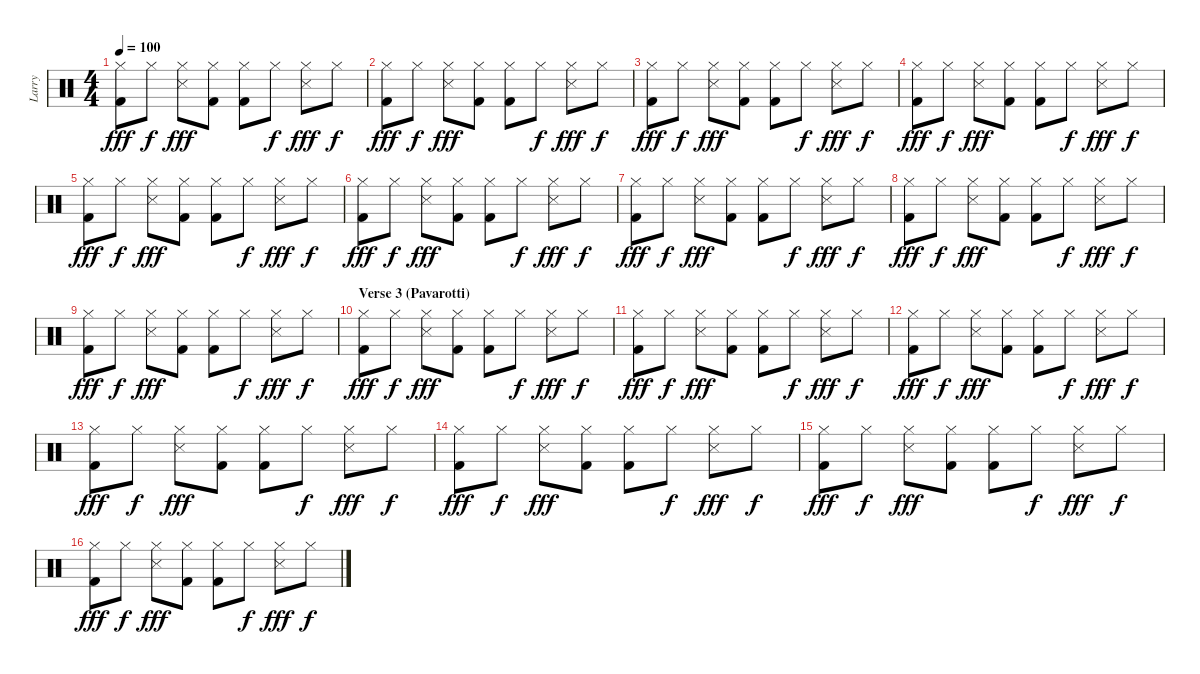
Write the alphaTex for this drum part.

\track ("Larry" "Larry") {instrument percussion}
\staff {score}
\articulation defaults
\ts (4 4)
\tempo 100
\clef neutral
\ks c
("Kick (hit) 2" "Hi-Hat (closed)").8{dy fff} "Hi-Hat (closed)".8{dy f} ("Snare (side stick) 3" "Hi-Hat (closed)").8{dy fff} ("Kick (hit) 2" "Hi-Hat (closed)").8 ("Kick (hit) 2" "Hi-Hat (closed)").8 "Hi-Hat (closed)".8{dy f} ("Snare (side stick) 3" "Hi-Hat (closed)").8{dy fff} "Hi-Hat (closed)".8{dy f} |
("Kick (hit) 2" "Hi-Hat (closed)").8{dy fff} "Hi-Hat (closed)".8{dy f} ("Snare (side stick) 3" "Hi-Hat (closed)").8{dy fff} ("Kick (hit) 2" "Hi-Hat (closed)").8 ("Kick (hit) 2" "Hi-Hat (closed)").8 "Hi-Hat (closed)".8{dy f} ("Snare (side stick) 3" "Hi-Hat (closed)").8{dy fff} "Hi-Hat (closed)".8{dy f} |
("Hi-Hat (closed)" "Kick (hit) 2").8{dy fff} "Hi-Hat (closed)".8{dy f} ("Hi-Hat (closed)" "Snare (side stick) 3").8{dy fff} ("Hi-Hat (closed)" "Kick (hit) 2").8 ("Hi-Hat (closed)" "Kick (hit) 2").8 "Hi-Hat (closed)".8{dy f} ("Hi-Hat (closed)" "Snare (side stick) 3").8{dy fff} "Hi-Hat (closed)".8{dy f} |
("Kick (hit) 2" "Hi-Hat (closed)").8{dy fff} "Hi-Hat (closed)".8{dy f} ("Snare (side stick) 3" "Hi-Hat (closed)").8{dy fff} ("Kick (hit) 2" "Hi-Hat (closed)").8 ("Kick (hit) 2" "Hi-Hat (closed)").8 "Hi-Hat (closed)".8{dy f} ("Snare (side stick) 3" "Hi-Hat (closed)").8{dy fff} "Hi-Hat (closed)".8{dy f} |
("Kick (hit) 2" "Hi-Hat (closed)").8{dy fff} "Hi-Hat (closed)".8{dy f} ("Snare (side stick) 3" "Hi-Hat (closed)").8{dy fff} ("Kick (hit) 2" "Hi-Hat (closed)").8 ("Kick (hit) 2" "Hi-Hat (closed)").8 "Hi-Hat (closed)".8{dy f} ("Snare (side stick) 3" "Hi-Hat (closed)").8{dy fff} "Hi-Hat (closed)".8{dy f} |
("Hi-Hat (closed)" "Kick (hit) 2").8{dy fff} "Hi-Hat (closed)".8{dy f} ("Hi-Hat (closed)" "Snare (side stick) 3").8{dy fff} ("Hi-Hat (closed)" "Kick (hit) 2").8 ("Hi-Hat (closed)" "Kick (hit) 2").8 "Hi-Hat (closed)".8{dy f} ("Hi-Hat (closed)" "Snare (side stick) 3").8{dy fff} "Hi-Hat (closed)".8{dy f} |
("Hi-Hat (closed)" "Kick (hit) 2").8{dy fff} "Hi-Hat (closed)".8{dy f} ("Hi-Hat (closed)" "Snare (side stick) 3").8{dy fff} ("Hi-Hat (closed)" "Kick (hit) 2").8 ("Hi-Hat (closed)" "Kick (hit) 2").8 "Hi-Hat (closed)".8{dy f} ("Hi-Hat (closed)" "Snare (side stick) 3").8{dy fff} "Hi-Hat (closed)".8{dy f} |
("Kick (hit) 2" "Hi-Hat (closed)").8{dy fff} "Hi-Hat (closed)".8{dy f} ("Snare (side stick) 3" "Hi-Hat (closed)").8{dy fff} ("Kick (hit) 2" "Hi-Hat (closed)").8 ("Kick (hit) 2" "Hi-Hat (closed)").8 "Hi-Hat (closed)".8{dy f} ("Snare (side stick) 3" "Hi-Hat (closed)").8{dy fff} "Hi-Hat (closed)".8{dy f} |
("Kick (hit) 2" "Hi-Hat (closed)").8{dy fff} "Hi-Hat (closed)".8{dy f} ("Snare (side stick) 3" "Hi-Hat (closed)").8{dy fff} ("Kick (hit) 2" "Hi-Hat (closed)").8 ("Kick (hit) 2" "Hi-Hat (closed)").8 "Hi-Hat (closed)".8{dy f} ("Snare (side stick) 3" "Hi-Hat (closed)").8{dy fff} "Hi-Hat (closed)".8{dy f} |
\section ("" "Verse 3 (Pavarotti)")
("Hi-Hat (closed)" "Kick (hit) 2").8{dy fff} "Hi-Hat (closed)".8{dy f} ("Hi-Hat (closed)" "Snare (side stick) 3").8{dy fff} ("Hi-Hat (closed)" "Kick (hit) 2").8 ("Hi-Hat (closed)" "Kick (hit) 2").8 "Hi-Hat (closed)".8{dy f} ("Hi-Hat (closed)" "Snare (side stick) 3").8{dy fff} "Hi-Hat (closed)".8{dy f} |
("Kick (hit) 2" "Hi-Hat (closed)").8{dy fff} "Hi-Hat (closed)".8{dy f} ("Snare (side stick) 3" "Hi-Hat (closed)").8{dy fff} ("Kick (hit) 2" "Hi-Hat (closed)").8 ("Kick (hit) 2" "Hi-Hat (closed)").8 "Hi-Hat (closed)".8{dy f} ("Snare (side stick) 3" "Hi-Hat (closed)").8{dy fff} "Hi-Hat (closed)".8{dy f} |
("Kick (hit) 2" "Hi-Hat (closed)").8{dy fff} "Hi-Hat (closed)".8{dy f} ("Snare (side stick) 3" "Hi-Hat (closed)").8{dy fff} ("Kick (hit) 2" "Hi-Hat (closed)").8 ("Kick (hit) 2" "Hi-Hat (closed)").8 "Hi-Hat (closed)".8{dy f} ("Snare (side stick) 3" "Hi-Hat (closed)").8{dy fff} "Hi-Hat (closed)".8{dy f} |
("Hi-Hat (closed)" "Kick (hit) 2").8{dy fff} "Hi-Hat (closed)".8{dy f} ("Hi-Hat (closed)" "Snare (side stick) 3").8{dy fff} ("Hi-Hat (closed)" "Kick (hit) 2").8 ("Hi-Hat (closed)" "Kick (hit) 2").8 "Hi-Hat (closed)".8{dy f} ("Hi-Hat (closed)" "Snare (side stick) 3").8{dy fff} "Hi-Hat (closed)".8{dy f} |
("Hi-Hat (closed)" "Kick (hit) 2").8{dy fff} "Hi-Hat (closed)".8{dy f} ("Hi-Hat (closed)" "Snare (side stick) 3").8{dy fff} ("Hi-Hat (closed)" "Kick (hit) 2").8 ("Hi-Hat (closed)" "Kick (hit) 2").8 "Hi-Hat (closed)".8{dy f} ("Hi-Hat (closed)" "Snare (side stick) 3").8{dy fff} "Hi-Hat (closed)".8{dy f} |
("Kick (hit) 2" "Hi-Hat (closed)").8{dy fff} "Hi-Hat (closed)".8{dy f} ("Snare (side stick) 3" "Hi-Hat (closed)").8{dy fff} ("Kick (hit) 2" "Hi-Hat (closed)").8 ("Kick (hit) 2" "Hi-Hat (closed)").8 "Hi-Hat (closed)".8{dy f} ("Snare (side stick) 3" "Hi-Hat (closed)").8{dy fff} "Hi-Hat (closed)".8{dy f} |
("Kick (hit) 2" "Hi-Hat (closed)").8{dy fff} "Hi-Hat (closed)".8{dy f} ("Snare (side stick) 3" "Hi-Hat (closed)").8{dy fff} ("Kick (hit) 2" "Hi-Hat (closed)").8 ("Kick (hit) 2" "Hi-Hat (closed)").8 "Hi-Hat (closed)".8{dy f} ("Snare (side stick) 3" "Hi-Hat (closed)").8{dy fff} "Hi-Hat (closed)".8{dy f}
